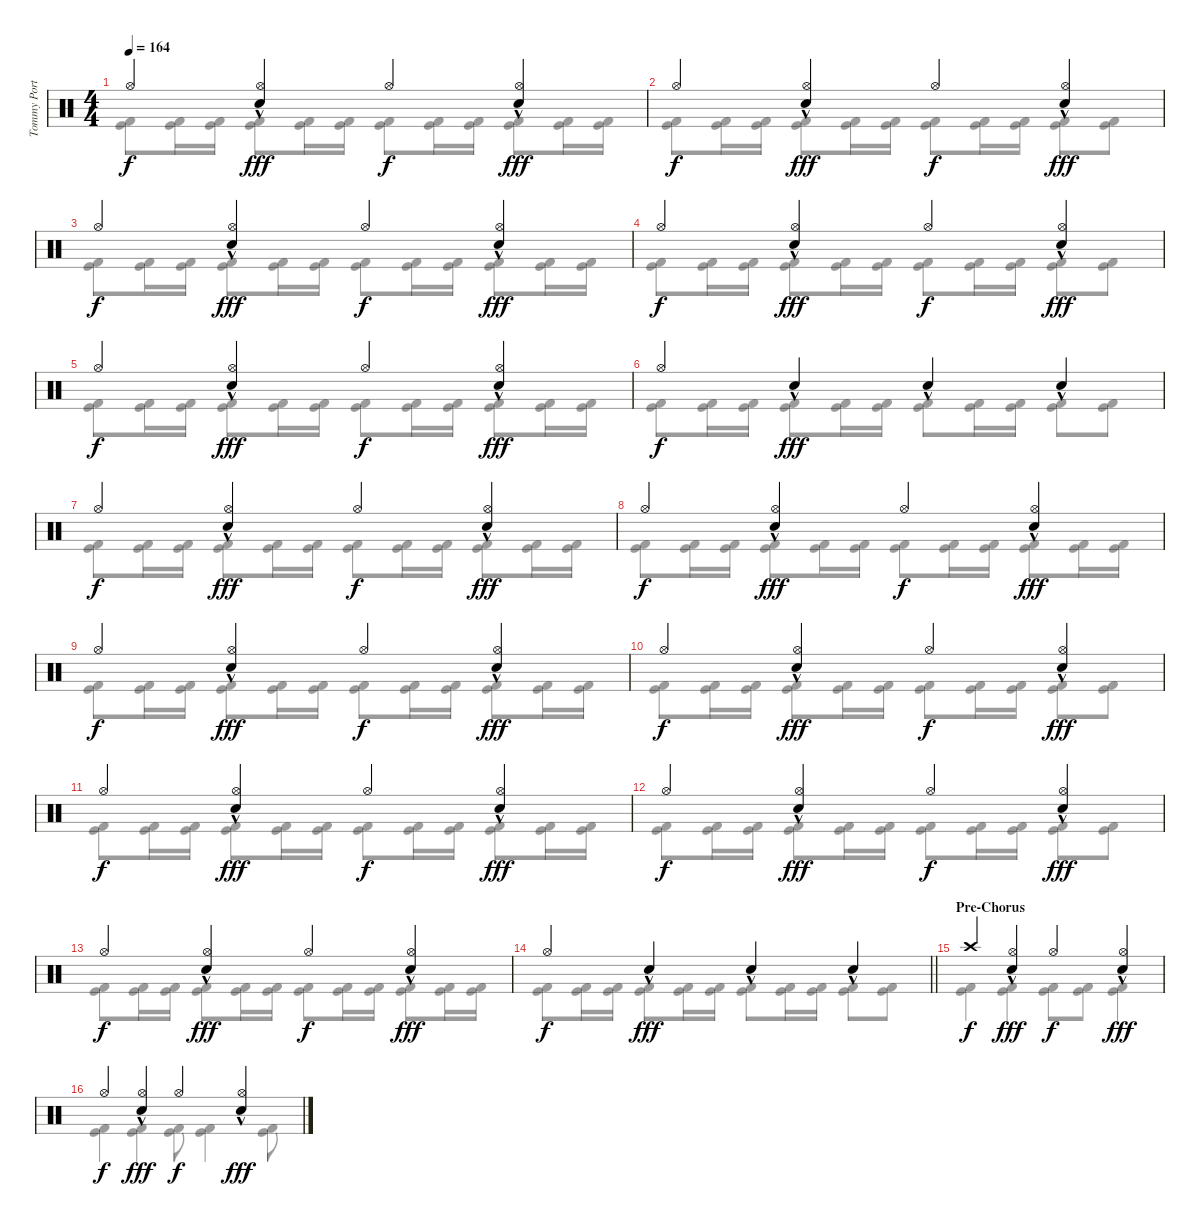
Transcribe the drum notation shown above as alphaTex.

\track ("Tommy Portimo" "Tommy Port") {instrument percussion}
\staff {score}
\articulation defaults
\voice
\ts (4 4)
\tempo 164
\clef neutral
\ks c "Hi-Hat (open)".4{dy f}
("Snare (hit) 2"{hac} "Hi-Hat (open)").4{dy fff} "Hi-Hat (open)".4{dy f} ("Snare (hit) 2"{hac} "Hi-Hat (open)").4{dy fff} |
"Hi-Hat (open)".4{dy f} ("Snare (hit) 2"{hac} "Hi-Hat (open)").4{dy fff} "Hi-Hat (open)".4{dy f} ("Snare (hit) 2"{hac} "Hi-Hat (open)").4{dy fff} |
"Hi-Hat (open)".4{dy f} ("Snare (hit) 2"{hac} "Hi-Hat (open)").4{dy fff} "Hi-Hat (open)".4{dy f} ("Snare (hit) 2"{hac} "Hi-Hat (open)").4{dy fff} |
"Hi-Hat (open)".4{dy f} ("Snare (hit) 2"{hac} "Hi-Hat (open)").4{dy fff} "Hi-Hat (open)".4{dy f} ("Snare (hit) 2"{hac} "Hi-Hat (open)").4{dy fff} |
"Hi-Hat (open)".4{dy f} ("Snare (hit) 2"{hac} "Hi-Hat (open)").4{dy fff} "Hi-Hat (open)".4{dy f} ("Snare (hit) 2"{hac} "Hi-Hat (open)").4{dy fff} |
"Hi-Hat (open)".4{dy f} "Snare (hit) 2"{hac}.4{dy fff} "Snare (hit) 2"{hac}.4 "Snare (hit) 2"{hac}.4 |
"Hi-Hat (open)".4{dy f} ("Snare (hit) 2"{hac} "Hi-Hat (open)").4{dy fff} "Hi-Hat (open)".4{dy f} ("Snare (hit) 2"{hac} "Hi-Hat (open)").4{dy fff} |
"Hi-Hat (open)".4{dy f} ("Snare (hit) 2"{hac} "Hi-Hat (open)").4{dy fff} "Hi-Hat (open)".4{dy f} ("Snare (hit) 2"{hac} "Hi-Hat (open)").4{dy fff} |
"Hi-Hat (open)".4{dy f} ("Snare (hit) 2"{hac} "Hi-Hat (open)").4{dy fff} "Hi-Hat (open)".4{dy f} ("Snare (hit) 2"{hac} "Hi-Hat (open)").4{dy fff} |
"Hi-Hat (open)".4{dy f} ("Snare (hit) 2"{hac} "Hi-Hat (open)").4{dy fff} "Hi-Hat (open)".4{dy f} ("Snare (hit) 2"{hac} "Hi-Hat (open)").4{dy fff} |
"Hi-Hat (open)".4{dy f} ("Snare (hit) 2"{hac} "Hi-Hat (open)").4{dy fff} "Hi-Hat (open)".4{dy f} ("Snare (hit) 2"{hac} "Hi-Hat (open)").4{dy fff} |
"Hi-Hat (open)".4{dy f} ("Snare (hit) 2"{hac} "Hi-Hat (open)").4{dy fff} "Hi-Hat (open)".4{dy f} ("Snare (hit) 2"{hac} "Hi-Hat (open)").4{dy fff} |
"Hi-Hat (open)".4{dy f} ("Snare (hit) 2"{hac} "Hi-Hat (open)").4{dy fff} "Hi-Hat (open)".4{dy f} ("Snare (hit) 2"{hac} "Hi-Hat (open)").4{dy fff} |
\barLineRight lightlight "Hi-Hat (open)".4{dy f} "Snare (hit) 2"{hac}.4{dy fff} "Snare (hit) 2"{hac}.4 "Snare (hit) 2"{hac}.4
|
\section ("" "Pre-Chorus")
"Crash high (hit)".4{dy f} ("Snare (hit) 2"{hac} "Hi-Hat (open)").4{dy fff} "Hi-Hat (open)".4{dy f} ("Snare (hit) 2"{hac} "Hi-Hat (open)").4{dy fff} |
"Hi-Hat (open)".4{dy f} ("Snare (hit) 2"{hac} "Hi-Hat (open)").4{dy fff} "Hi-Hat (open)".4{dy f} ("Snare (hit) 2"{hac} "Hi-Hat (open)").4{dy fff}
\voice
\clef neutral
\ottava regular
\simile none
\ks c
("Kick (hit)" "Kick (hit) 2").8{dy f} ("Kick (hit)" "Kick (hit) 2").16 ("Kick (hit)" "Kick (hit) 2").16 ("Kick (hit)" "Kick (hit) 2").8 ("Kick (hit)" "Kick (hit) 2").16 ("Kick (hit)" "Kick (hit) 2").16 ("Kick (hit)" "Kick (hit) 2").8 ("Kick (hit)" "Kick (hit) 2").16 ("Kick (hit)" "Kick (hit) 2").16 ("Kick (hit)" "Kick (hit) 2").8 ("Kick (hit)" "Kick (hit) 2").16 ("Kick (hit)" "Kick (hit) 2").16 |
("Kick (hit)" "Kick (hit) 2").8 ("Kick (hit)" "Kick (hit) 2").16 ("Kick (hit)" "Kick (hit) 2").16 ("Kick (hit)" "Kick (hit) 2").8 ("Kick (hit)" "Kick (hit) 2").16 ("Kick (hit)" "Kick (hit) 2").16 ("Kick (hit)" "Kick (hit) 2").8 ("Kick (hit)" "Kick (hit) 2").16 ("Kick (hit)" "Kick (hit) 2").16 ("Kick (hit)" "Kick (hit) 2").8 ("Kick (hit)" "Kick (hit) 2").8 |
("Kick (hit)" "Kick (hit) 2").8 ("Kick (hit)" "Kick (hit) 2").16 ("Kick (hit)" "Kick (hit) 2").16 ("Kick (hit)" "Kick (hit) 2").8 ("Kick (hit)" "Kick (hit) 2").16 ("Kick (hit)" "Kick (hit) 2").16 ("Kick (hit)" "Kick (hit) 2").8 ("Kick (hit)" "Kick (hit) 2").16 ("Kick (hit)" "Kick (hit) 2").16 ("Kick (hit)" "Kick (hit) 2").8 ("Kick (hit)" "Kick (hit) 2").16 ("Kick (hit)" "Kick (hit) 2").16 |
("Kick (hit)" "Kick (hit) 2").8 ("Kick (hit)" "Kick (hit) 2").16 ("Kick (hit)" "Kick (hit) 2").16 ("Kick (hit)" "Kick (hit) 2").8 ("Kick (hit)" "Kick (hit) 2").16 ("Kick (hit)" "Kick (hit) 2").16 ("Kick (hit)" "Kick (hit) 2").8 ("Kick (hit)" "Kick (hit) 2").16 ("Kick (hit)" "Kick (hit) 2").16 ("Kick (hit)" "Kick (hit) 2").8 ("Kick (hit)" "Kick (hit) 2").8 |
("Kick (hit)" "Kick (hit) 2").8 ("Kick (hit)" "Kick (hit) 2").16 ("Kick (hit)" "Kick (hit) 2").16 ("Kick (hit)" "Kick (hit) 2").8 ("Kick (hit)" "Kick (hit) 2").16 ("Kick (hit)" "Kick (hit) 2").16 ("Kick (hit)" "Kick (hit) 2").8 ("Kick (hit)" "Kick (hit) 2").16 ("Kick (hit)" "Kick (hit) 2").16 ("Kick (hit)" "Kick (hit) 2").8 ("Kick (hit)" "Kick (hit) 2").16 ("Kick (hit)" "Kick (hit) 2").16 |
("Kick (hit)" "Kick (hit) 2").8 ("Kick (hit)" "Kick (hit) 2").16 ("Kick (hit)" "Kick (hit) 2").16 ("Kick (hit)" "Kick (hit) 2").8 ("Kick (hit)" "Kick (hit) 2").16 ("Kick (hit)" "Kick (hit) 2").16 ("Kick (hit)" "Kick (hit) 2").8 ("Kick (hit)" "Kick (hit) 2").16 ("Kick (hit)" "Kick (hit) 2").16 ("Kick (hit)" "Kick (hit) 2").8 ("Kick (hit)" "Kick (hit) 2").8 |
("Kick (hit)" "Kick (hit) 2").8 ("Kick (hit)" "Kick (hit) 2").16 ("Kick (hit)" "Kick (hit) 2").16 ("Kick (hit)" "Kick (hit) 2").8 ("Kick (hit)" "Kick (hit) 2").16 ("Kick (hit)" "Kick (hit) 2").16 ("Kick (hit)" "Kick (hit) 2").8 ("Kick (hit)" "Kick (hit) 2").16 ("Kick (hit)" "Kick (hit) 2").16 ("Kick (hit)" "Kick (hit) 2").8 ("Kick (hit)" "Kick (hit) 2").16 ("Kick (hit)" "Kick (hit) 2").16 |
("Kick (hit)" "Kick (hit) 2").8 ("Kick (hit)" "Kick (hit) 2").16 ("Kick (hit)" "Kick (hit) 2").16 ("Kick (hit)" "Kick (hit) 2").8 ("Kick (hit)" "Kick (hit) 2").16 ("Kick (hit)" "Kick (hit) 2").16 ("Kick (hit)" "Kick (hit) 2").8 ("Kick (hit)" "Kick (hit) 2").16 ("Kick (hit)" "Kick (hit) 2").16 ("Kick (hit)" "Kick (hit) 2").8 ("Kick (hit)" "Kick (hit) 2").16 ("Kick (hit)" "Kick (hit) 2").16 |
("Kick (hit)" "Kick (hit) 2").8 ("Kick (hit)" "Kick (hit) 2").16 ("Kick (hit)" "Kick (hit) 2").16 ("Kick (hit)" "Kick (hit) 2").8 ("Kick (hit)" "Kick (hit) 2").16 ("Kick (hit)" "Kick (hit) 2").16 ("Kick (hit)" "Kick (hit) 2").8 ("Kick (hit)" "Kick (hit) 2").16 ("Kick (hit)" "Kick (hit) 2").16 ("Kick (hit)" "Kick (hit) 2").8 ("Kick (hit)" "Kick (hit) 2").16 ("Kick (hit)" "Kick (hit) 2").16 |
("Kick (hit)" "Kick (hit) 2").8 ("Kick (hit)" "Kick (hit) 2").16 ("Kick (hit)" "Kick (hit) 2").16 ("Kick (hit)" "Kick (hit) 2").8 ("Kick (hit)" "Kick (hit) 2").16 ("Kick (hit)" "Kick (hit) 2").16 ("Kick (hit)" "Kick (hit) 2").8 ("Kick (hit)" "Kick (hit) 2").16 ("Kick (hit)" "Kick (hit) 2").16 ("Kick (hit)" "Kick (hit) 2").8 ("Kick (hit)" "Kick (hit) 2").8 |
("Kick (hit)" "Kick (hit) 2").8 ("Kick (hit)" "Kick (hit) 2").16 ("Kick (hit)" "Kick (hit) 2").16 ("Kick (hit)" "Kick (hit) 2").8 ("Kick (hit)" "Kick (hit) 2").16 ("Kick (hit)" "Kick (hit) 2").16 ("Kick (hit)" "Kick (hit) 2").8 ("Kick (hit)" "Kick (hit) 2").16 ("Kick (hit)" "Kick (hit) 2").16 ("Kick (hit)" "Kick (hit) 2").8 ("Kick (hit)" "Kick (hit) 2").16 ("Kick (hit)" "Kick (hit) 2").16 |
("Kick (hit)" "Kick (hit) 2").8 ("Kick (hit)" "Kick (hit) 2").16 ("Kick (hit)" "Kick (hit) 2").16 ("Kick (hit)" "Kick (hit) 2").8 ("Kick (hit)" "Kick (hit) 2").16 ("Kick (hit)" "Kick (hit) 2").16 ("Kick (hit)" "Kick (hit) 2").8 ("Kick (hit)" "Kick (hit) 2").16 ("Kick (hit)" "Kick (hit) 2").16 ("Kick (hit)" "Kick (hit) 2").8 ("Kick (hit)" "Kick (hit) 2").8 |
("Kick (hit)" "Kick (hit) 2").8 ("Kick (hit)" "Kick (hit) 2").16 ("Kick (hit)" "Kick (hit) 2").16 ("Kick (hit)" "Kick (hit) 2").8 ("Kick (hit)" "Kick (hit) 2").16 ("Kick (hit)" "Kick (hit) 2").16 ("Kick (hit)" "Kick (hit) 2").8 ("Kick (hit)" "Kick (hit) 2").16 ("Kick (hit)" "Kick (hit) 2").16 ("Kick (hit)" "Kick (hit) 2").8 ("Kick (hit)" "Kick (hit) 2").16 ("Kick (hit)" "Kick (hit) 2").16 |
\barLineRight lightlight
("Kick (hit)" "Kick (hit) 2").8 ("Kick (hit)" "Kick (hit) 2").16 ("Kick (hit)" "Kick (hit) 2").16 ("Kick (hit)" "Kick (hit) 2").8 ("Kick (hit)" "Kick (hit) 2").16 ("Kick (hit)" "Kick (hit) 2").16 ("Kick (hit)" "Kick (hit) 2").8 ("Kick (hit)" "Kick (hit) 2").16 ("Kick (hit)" "Kick (hit) 2").16 ("Kick (hit)" "Kick (hit) 2").8 ("Kick (hit)" "Kick (hit) 2").8 |
("Kick (hit)" "Kick (hit) 2").4 ("Kick (hit)" "Kick (hit) 2").4 ("Kick (hit)" "Kick (hit) 2").8 ("Kick (hit)" "Kick (hit) 2").8 ("Kick (hit)" "Kick (hit) 2").4 |
("Kick (hit)" "Kick (hit) 2").4 ("Kick (hit)" "Kick (hit) 2").4 ("Kick (hit)" "Kick (hit) 2").8 ("Kick (hit)" "Kick (hit) 2").4 ("Kick (hit)" "Kick (hit) 2").8
